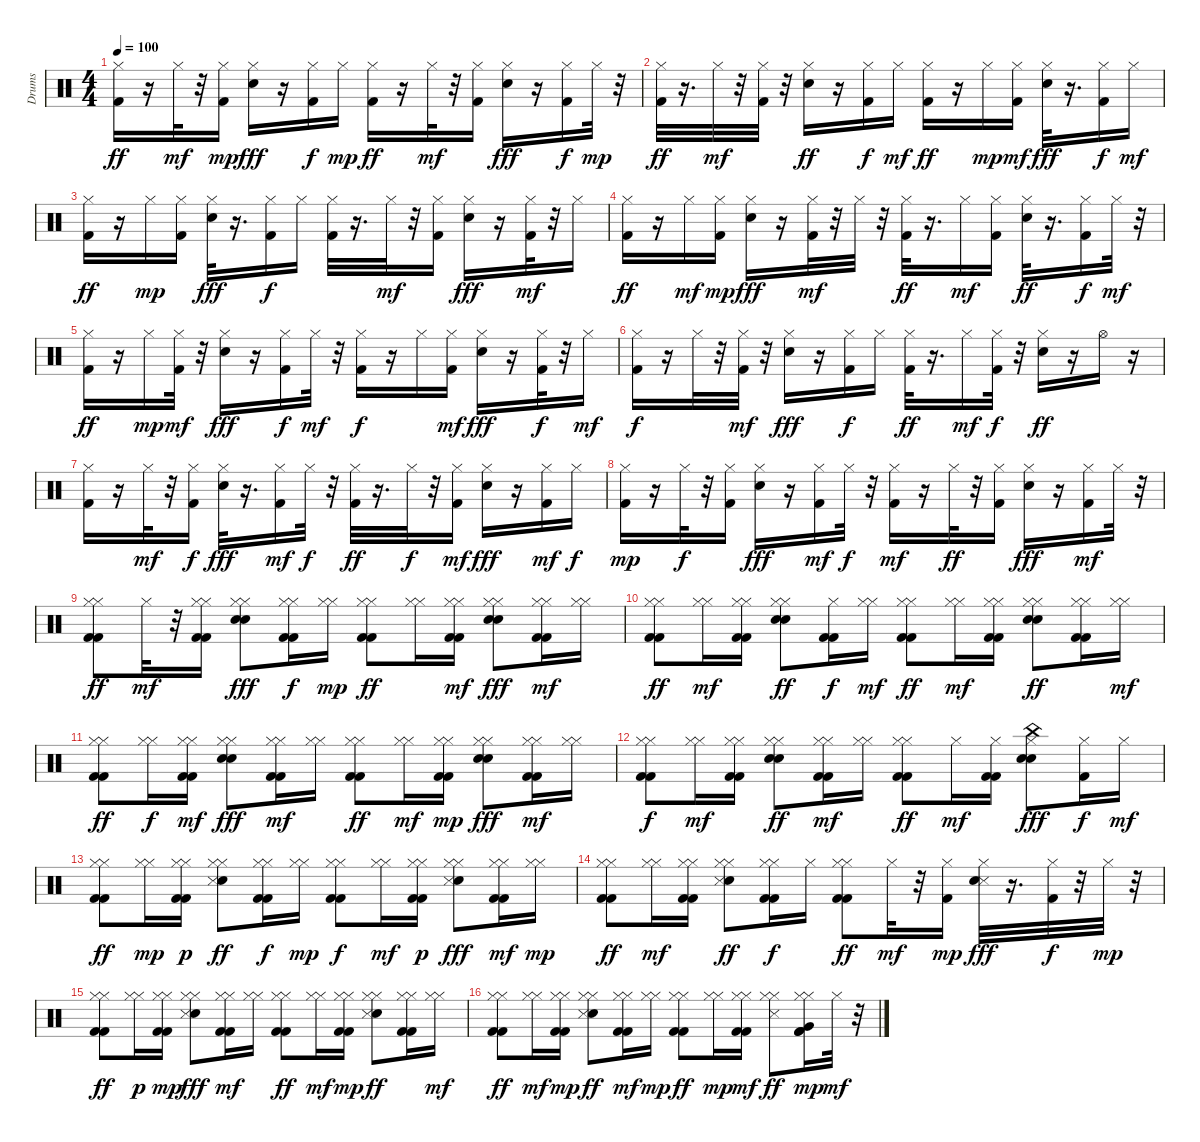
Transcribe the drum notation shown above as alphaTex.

\track ("Drums" "Drums") {instrument percussion}
\staff {score}
\articulation defaults
\ts (4 4)
\tempo 100
\clef neutral
\ks c
("Hi-Hat (closed)" "Kick (hit) 2").16{dy ff} r.16 "Hi-Hat (closed)".32{dy mf} r.32 ("Hi-Hat (closed)" "Kick (hit) 2").16{dy mp} ("Hi-Hat (closed)" "Snare (hit) 2").16{dy fff} r.16 ("Kick (hit) 2" "Hi-Hat (closed)").16{dy f} "Hi-Hat (closed)".16{dy mp} ("Kick (hit) 2" "Hi-Hat (closed)").16{dy ff} r.16 "Hi-Hat (closed)".32{dy mf} r.32 ("Kick (hit) 2" "Hi-Hat (closed)").16 ("Hi-Hat (closed)" "Snare (hit) 2").16{dy fff} r.16 ("Kick (hit) 2" "Hi-Hat (closed)").16{dy f} "Hi-Hat (closed)".32{dy mp} r.32 |
("Hi-Hat (closed)" "Kick (hit) 2").32{dy ff} r.16{d} "Hi-Hat (closed)".32{dy mf} r.32 ("Kick (hit) 2" "Hi-Hat (closed)").32 r.32 ("Hi-Hat (closed)" "Snare (hit) 2").16{dy ff} r.16 ("Kick (hit) 2" "Hi-Hat (closed)").16{dy f} "Hi-Hat (closed)".16{dy mf} ("Hi-Hat (closed)" "Kick (hit) 2").16{dy ff} r.16 "Hi-Hat (closed)".16{dy mp} ("Kick (hit) 2" "Hi-Hat (closed)").16{dy mf} ("Hi-Hat (closed)" "Snare (hit) 2").32{dy fff} r.16{d} ("Kick (hit) 2" "Hi-Hat (closed)").16{dy f} "Hi-Hat (closed)".16{dy mf} |
("Hi-Hat (closed)" "Kick (hit) 2").16{dy ff} r.16 "Hi-Hat (closed)".16{dy mp} ("Kick (hit) 2" "Hi-Hat (closed)").16 ("Hi-Hat (closed)" "Snare (hit) 2").32{dy fff} r.16{d} ("Kick (hit) 2" "Hi-Hat (closed)").16{dy f} "Hi-Hat (closed)".16 ("Hi-Hat (closed)" "Kick (hit) 2").32 r.16{d} "Hi-Hat (closed)".32{dy mf} r.32 ("Hi-Hat (closed)" "Kick (hit) 2").16 ("Hi-Hat (closed)" "Snare (hit) 2").16{dy fff} r.16 ("Kick (hit) 2" "Hi-Hat (closed)").32{dy mf} r.32 "Hi-Hat (closed)".16 |
("Kick (hit) 2" "Hi-Hat (closed)").16{dy ff} r.16 "Hi-Hat (closed)".16{dy mf} ("Hi-Hat (closed)" "Kick (hit) 2").16{dy mp} ("Hi-Hat (closed)" "Snare (hit) 2").16{dy fff} r.16 ("Kick (hit) 2" "Hi-Hat (closed)").32{dy mf} r.32 "Hi-Hat (closed)".32 r.32 ("Kick (hit) 2" "Hi-Hat (closed)").32{dy ff} r.16{d} "Hi-Hat (closed)".16{dy mf} ("Kick (hit) 2" "Hi-Hat (closed)").16 ("Snare (hit) 2" "Hi-Hat (closed)").32{dy ff} r.16{d} ("Kick (hit) 2" "Hi-Hat (closed)").16{dy f} "Hi-Hat (closed)".32{dy mf} r.32 |
("Hi-Hat (closed)" "Kick (hit) 2").16{dy ff} r.16 "Hi-Hat (closed)".16{dy mp} ("Kick (hit) 2" "Hi-Hat (closed)").32{dy mf} r.32 ("Hi-Hat (closed)" "Snare (hit) 2").16{dy fff} r.16 ("Kick (hit) 2" "Hi-Hat (closed)").16{dy f} "Hi-Hat (closed)".32{dy mf} r.32 ("Hi-Hat (closed)" "Kick (hit) 2").16{dy f} r.16 "Hi-Hat (closed)".16 ("Kick (hit) 2" "Hi-Hat (closed)").16{dy mf} ("Hi-Hat (closed)" "Snare (hit) 2").16{dy fff} r.16 ("Kick (hit) 2" "Hi-Hat (closed)").32{dy f} r.32 "Hi-Hat (closed)".16{dy mf} |
("Kick (hit) 2" "Hi-Hat (closed)").16{dy f} r.16 "Hi-Hat (closed)".32 r.32 ("Hi-Hat (closed)" "Kick (hit) 2").32{dy mf} r.32 ("Hi-Hat (closed)" "Snare (hit) 2").16{dy fff} r.16 ("Hi-Hat (closed)" "Kick (hit) 2").16{dy f} "Hi-Hat (closed)".16 ("Kick (hit) 2" "Hi-Hat (closed)").32{dy ff} r.16{d} "Hi-Hat (closed)".16{dy mf} ("Hi-Hat (closed)" "Kick (hit) 2").32{dy f} r.32 ("Hi-Hat (closed)" "Snare (hit) 2").16{dy ff} r.16 "Hi-Hat (open)".16 r.16 |
("Hi-Hat (closed)" "Kick (hit) 2").16 r.16 "Hi-Hat (closed)".32{dy mf} r.32 ("Kick (hit) 2" "Hi-Hat (closed)").16{dy f} ("Hi-Hat (closed)" "Snare (hit) 2").32{dy fff} r.16{d} ("Kick (hit) 2" "Hi-Hat (closed)").16{dy mf} "Hi-Hat (closed)".32{dy f} r.32 ("Kick (hit) 2" "Hi-Hat (closed)").32{dy ff} r.16{d} "Hi-Hat (closed)".32{dy f} r.32 ("Kick (hit) 2" "Hi-Hat (closed)").16{dy mf} ("Hi-Hat (closed)" "Snare (hit) 2").16{dy fff} r.16 ("Kick (hit) 2" "Hi-Hat (closed)").16{dy mf} "Hi-Hat (closed)".16{dy f} |
("Kick (hit) 2" "Hi-Hat (closed)").16{dy mp} r.16 "Hi-Hat (closed)".32{dy f} r.32 ("Kick (hit) 2" "Hi-Hat (closed)").16 ("Hi-Hat (closed)" "Snare (hit) 2").16{dy fff} r.16 ("Kick (hit) 2" "Hi-Hat (closed)").16{dy mf} "Hi-Hat (closed)".32{dy f} r.32 ("Hi-Hat (closed)" "Kick (hit) 2").16{dy mf} r.16 "Hi-Hat (closed)".32{dy ff} r.32 ("Kick (hit) 2" "Hi-Hat (closed)").16 ("Hi-Hat (closed)" "Snare (hit) 2").16{dy fff} r.16 ("Kick (hit) 2" "Hi-Hat (closed)").16{dy mf} "Hi-Hat (closed)".32 r.32 |
("Kick (hit) 2" "Hi-Hat (closed)" "Hi-Hat (closed)" "Kick (hit) 2").8{dy ff} "Hi-Hat (closed)".32{dy mf} r.32 ("Hi-Hat (closed)" "Kick (hit) 2" "Kick (hit) 2" "Hi-Hat (closed)").16 ("Snare (hit) 2" "Hi-Hat (closed)" "Hi-Hat (closed)" "Snare (hit) 2").8{dy fff} ("Kick (hit) 2" "Hi-Hat (closed)" "Kick (hit) 2" "Hi-Hat (closed)").16{dy f} ("Hi-Hat (closed)" "Hi-Hat (closed)").16{dy mp} ("Kick (hit) 2" "Hi-Hat (closed)" "Kick (hit) 2" "Hi-Hat (closed)").8{dy ff} ("Hi-Hat (closed)" "Hi-Hat (closed)").16 ("Kick (hit) 2" "Hi-Hat (closed)" "Hi-Hat (closed)" "Kick (hit) 2").16{dy mf} ("Hi-Hat (closed)" "Hi-Hat (closed)" "Snare (hit) 2" "Snare (hit) 2").8{dy fff} ("Kick (hit) 2" "Hi-Hat (closed)" "Kick (hit) 2" "Hi-Hat (closed)").16{dy mf} ("Hi-Hat (closed)" "Hi-Hat (closed)").16 |
("Kick (hit) 2" "Hi-Hat (closed)" "Kick (hit) 2" "Hi-Hat (closed)").8{dy ff} ("Hi-Hat (closed)" "Hi-Hat (closed)").16{dy mf} ("Kick (hit) 2" "Hi-Hat (closed)" "Hi-Hat (closed)" "Kick (hit) 2").16 ("Hi-Hat (closed)" "Snare (hit) 2" "Snare (hit) 2" "Hi-Hat (closed)").8{dy ff} ("Kick (hit) 2" "Hi-Hat (closed)" "Kick (hit) 2").16{dy f} ("Hi-Hat (closed)" "Hi-Hat (closed)").16{dy mf} ("Kick (hit) 2" "Hi-Hat (closed)" "Kick (hit) 2" "Hi-Hat (closed)").8{dy ff} ("Hi-Hat (closed)" "Hi-Hat (closed)").16{dy mf} ("Kick (hit) 2" "Kick (hit) 2" "Hi-Hat (closed)" "Hi-Hat (closed)").16 ("Hi-Hat (closed)" "Hi-Hat (closed)" "Snare (hit) 2" "Snare (hit) 2").8{dy ff} ("Hi-Hat (closed)" "Kick (hit) 2" "Kick (hit) 2" "Hi-Hat (closed)").16 ("Hi-Hat (closed)" "Hi-Hat (closed)").16{dy mf} |
("Hi-Hat (closed)" "Kick (hit) 2" "Kick (hit) 2" "Hi-Hat (closed)").8{dy ff} ("Hi-Hat (closed)" "Hi-Hat (closed)").16{dy f} ("Kick (hit) 2" "Hi-Hat (closed)" "Hi-Hat (closed)" "Kick (hit) 2").16{dy mf} ("Hi-Hat (closed)" "Hi-Hat (closed)" "Snare (hit) 2" "Snare (hit) 2").8{dy fff} ("Kick (hit) 2" "Hi-Hat (closed)" "Kick (hit) 2" "Hi-Hat (closed)").16{dy mf} ("Hi-Hat (closed)" "Hi-Hat (closed)").16 ("Hi-Hat (closed)" "Kick (hit) 2" "Kick (hit) 2" "Hi-Hat (closed)").8{dy ff} ("Hi-Hat (closed)" "Hi-Hat (closed)").16{dy mf} ("Kick (hit) 2" "Hi-Hat (closed)" "Kick (hit) 2" "Hi-Hat (closed)").16{dy mp} ("Hi-Hat (closed)" "Hi-Hat (closed)" "Snare (hit) 2" "Snare (hit) 2").8{dy fff} ("Kick (hit) 2" "Hi-Hat (closed)" "Kick (hit) 2" "Hi-Hat (closed)").16{dy mf} ("Hi-Hat (closed)" "Hi-Hat (closed)").16 |
("Hi-Hat (closed)" "Kick (hit) 2" "Kick (hit) 2" "Hi-Hat (closed)").8{dy f} ("Hi-Hat (closed)" "Hi-Hat (closed)").16{dy mf} ("Kick (hit) 2" "Hi-Hat (closed)" "Kick (hit) 2" "Hi-Hat (closed)").16 ("Hi-Hat (closed)" "Snare (hit) 2" "Hi-Hat (closed)" "Snare (hit) 2").8{dy ff} ("Kick (hit) 2" "Hi-Hat (closed)" "Kick (hit) 2" "Hi-Hat (closed)").16{dy mf} ("Hi-Hat (closed)" "Hi-Hat (closed)").16 ("Kick (hit) 2" "Hi-Hat (closed)" "Hi-Hat (closed)" "Kick (hit) 2").8{dy ff} "Hi-Hat (closed)".16{dy mf} ("Kick (hit) 2" "Hi-Hat (closed)" "Kick (hit) 2").16 ("Hi-Hat (closed)" "China (hit)" "Snare (hit) 2" "Snare (hit) 2").8{dy fff} ("Kick (hit) 2" "Hi-Hat (closed)").16{dy f} "Hi-Hat (closed)".16{dy mf} |
("Kick (hit) 2" "Hi-Hat (closed)" "Kick (hit) 2" "Hi-Hat (closed)").8{dy ff} ("Hi-Hat (closed)" "Hi-Hat (closed)").16{dy mp} ("Kick (hit) 2" "Hi-Hat (closed)" "Kick (hit) 2" "Hi-Hat (closed)").16{dy p} ("Hi-Hat (closed)" "Hi-Hat (closed)" "Snare (hit) 2" "Snare (side stick) 3").8{dy ff} ("Kick (hit) 2" "Hi-Hat (closed)" "Hi-Hat (closed)" "Kick (hit) 2").16{dy f} ("Hi-Hat (closed)" "Hi-Hat (closed)").16{dy mp} ("Kick (hit) 2" "Hi-Hat (closed)" "Hi-Hat (closed)" "Kick (hit) 2").8{dy f} ("Hi-Hat (closed)" "Hi-Hat (closed)").16{dy mf} ("Kick (hit) 2" "Hi-Hat (closed)" "Kick (hit) 2" "Hi-Hat (closed)").16{dy p} ("Hi-Hat (closed)" "Hi-Hat (closed)" "Snare (hit) 2" "Snare (side stick) 3").8{dy fff} ("Kick (hit) 2" "Hi-Hat (closed)" "Kick (hit) 2" "Hi-Hat (closed)").16{dy mf} ("Hi-Hat (closed)" "Hi-Hat (closed)").16{dy mp} |
("Kick (hit) 2" "Hi-Hat (closed)" "Kick (hit) 2" "Hi-Hat (closed)").8{dy ff} ("Hi-Hat (closed)" "Hi-Hat (closed)").16{dy mf} ("Kick (hit) 2" "Kick (hit) 2" "Hi-Hat (closed)" "Hi-Hat (closed)").16 ("Hi-Hat (closed)" "Hi-Hat (closed)" "Snare (hit) 2" "Snare (side stick) 3").8{dy ff} ("Kick (hit) 2" "Hi-Hat (closed)" "Hi-Hat (closed)" "Kick (hit) 2").16{dy f} "Hi-Hat (closed)".16 ("Hi-Hat (closed)" "Kick (hit) 2" "Kick (hit) 2" "Hi-Hat (closed)").8{dy ff} "Hi-Hat (closed)".32{dy mf} r.32 ("Kick (hit) 2" "Hi-Hat (closed)").16{dy mp} ("Snare (side stick) 3" "Hi-Hat (closed)" "Snare (hit) 2").32{dy fff} r.16{d} ("Kick (hit) 2" "Hi-Hat (closed)").32{dy f} r.32 "Hi-Hat (closed)".32{dy mp} r.32 |
("Kick (hit) 2" "Hi-Hat (closed)" "Kick (hit) 2" "Hi-Hat (closed)").8{dy ff} ("Hi-Hat (closed)" "Hi-Hat (closed)").16{dy p} ("Hi-Hat (closed)" "Kick (hit) 2" "Kick (hit) 2" "Hi-Hat (closed)").16{dy mp} ("Hi-Hat (closed)" "Hi-Hat (closed)" "Snare (hit) 2" "Snare (side stick) 3").8{dy fff} ("Kick (hit) 2" "Hi-Hat (closed)" "Kick (hit) 2" "Hi-Hat (closed)").16{dy mf} ("Hi-Hat (closed)" "Hi-Hat (closed)").16 ("Kick (hit) 2" "Kick (hit) 2" "Hi-Hat (closed)" "Hi-Hat (closed)").8{dy ff} ("Hi-Hat (closed)" "Hi-Hat (closed)").16{dy mf} ("Kick (hit) 2" "Hi-Hat (closed)" "Hi-Hat (closed)" "Kick (hit) 2").16{dy mp} ("Hi-Hat (closed)" "Hi-Hat (closed)" "Snare (hit) 2" "Snare (side stick) 3").8{dy ff} ("Kick (hit) 2" "Hi-Hat (closed)" "Kick (hit) 2" "Hi-Hat (closed)").16 ("Hi-Hat (closed)" "Hi-Hat (closed)").16{dy mf} |
("Hi-Hat (closed)" "Kick (hit) 2" "Kick (hit) 2" "Hi-Hat (closed)").8{dy ff} ("Hi-Hat (closed)" "Hi-Hat (closed)").16{dy mf} ("Kick (hit) 2" "Hi-Hat (closed)" "Kick (hit) 2" "Hi-Hat (closed)").16{dy mp} ("Hi-Hat (closed)" "Snare (hit) 2" "Hi-Hat (closed)" "Snare (side stick) 3").8{dy ff} ("Hi-Hat (closed)" "Kick (hit) 2" "Kick (hit) 2" "Hi-Hat (closed)").16{dy mf} ("Hi-Hat (closed)" "Hi-Hat (closed)").16{dy mp} ("Hi-Hat (closed)" "Kick (hit) 2" "Kick (hit) 2" "Hi-Hat (closed)").8{dy ff} ("Hi-Hat (closed)" "Hi-Hat (closed)").16{dy mp} ("Hi-Hat (closed)" "Kick (hit) 2" "Kick (hit) 2" "Hi-Hat (closed)").16{dy mf} ("Hi-Hat (closed)" "Hi-Hat (closed)" "Snare (side stick) 3").8{dy ff} ("Kick (hit) 2" "Hi-Hat (closed)" "Hi-Hat (closed)" "Kick (hit) 2" "Very Low Tom (hit)").16{dy mp} "Hi-Hat (closed)".32{dy mf} r.32
